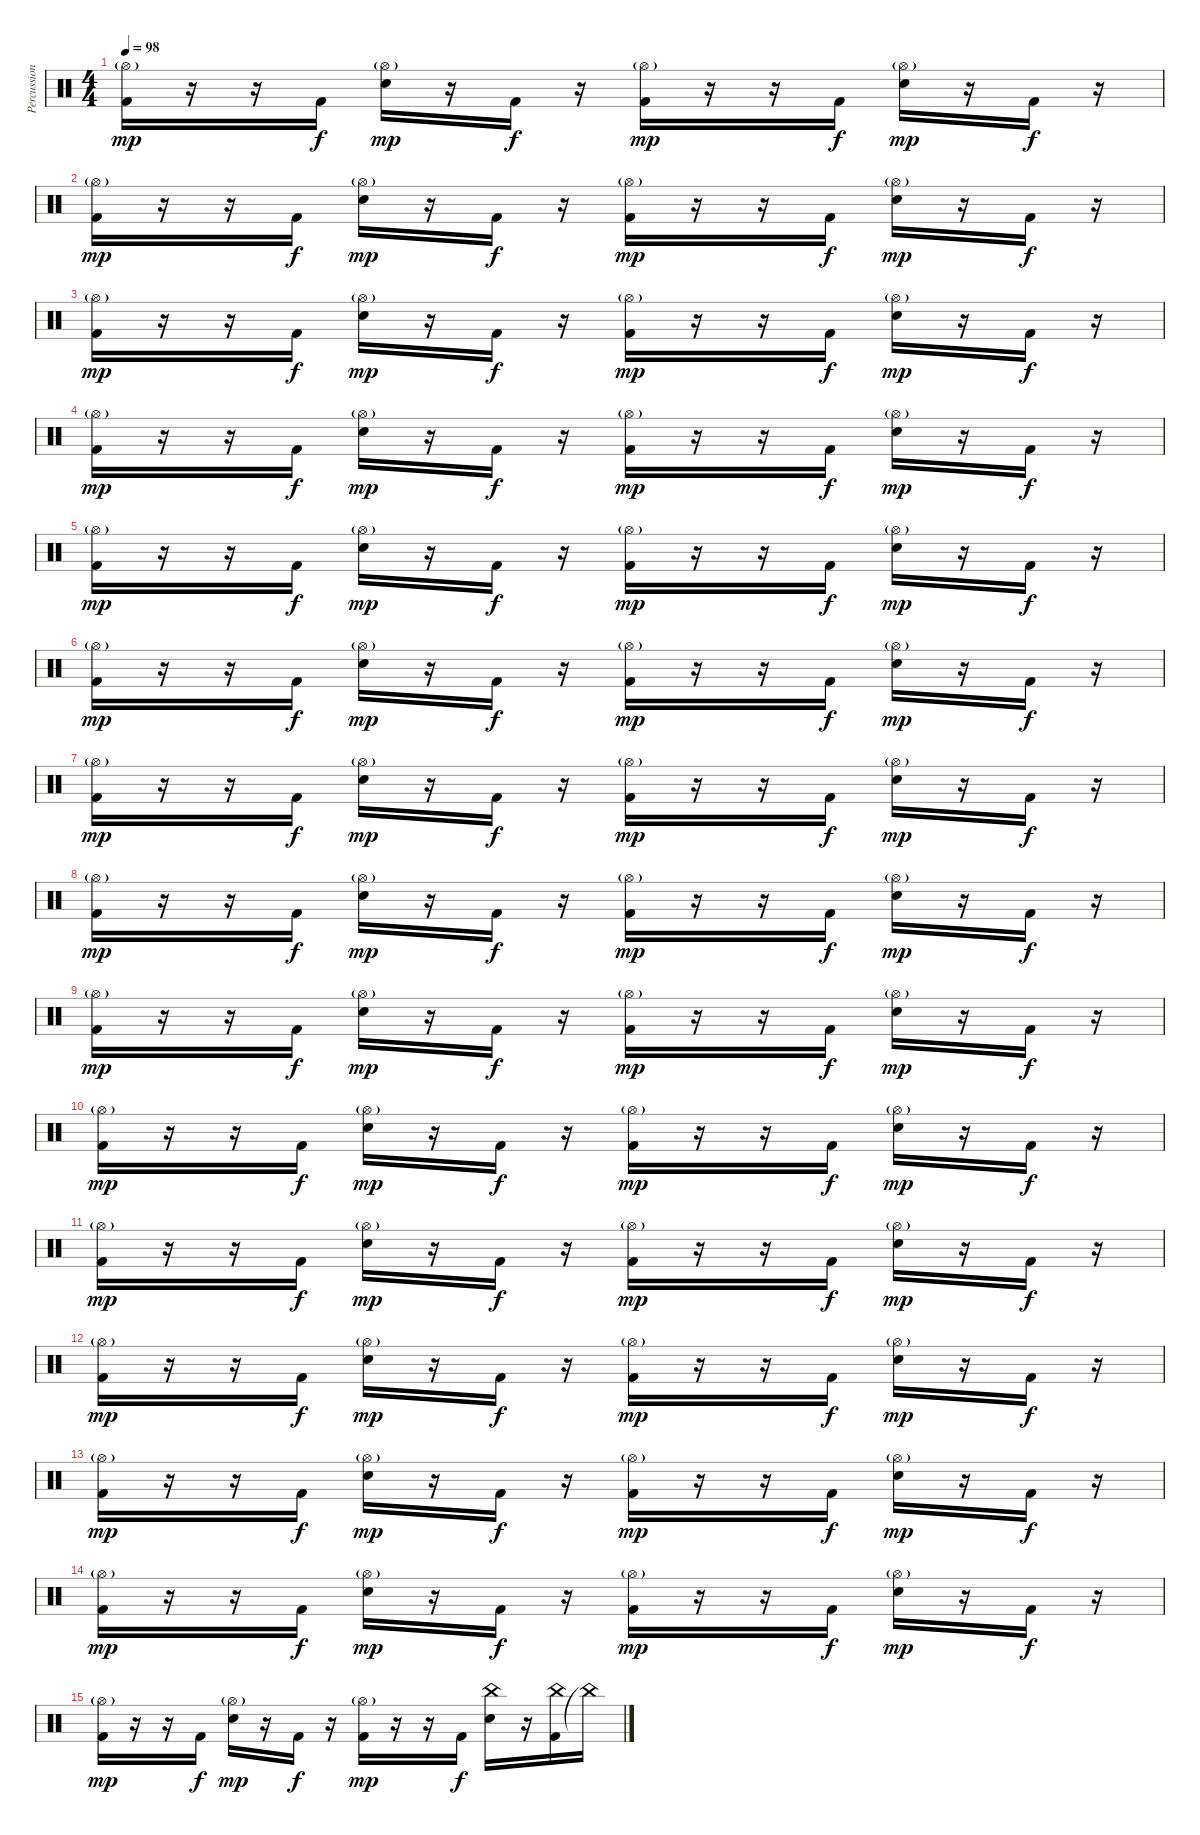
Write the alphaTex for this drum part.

\track ("Percussions" "Percussion") {instrument percussion}
\staff {score}
\articulation defaults
\ts (4 4)
\tempo 98
\clef neutral
\ks c
("Hi-Hat (open)"{g} "Kick (hit) 2").16{dy mp} r.16 r.16 "Kick (hit) 2".16{dy f} ("Hi-Hat (open)"{g} "Snare (hit) 2").16{dy mp} r.16 "Kick (hit) 2".16{dy f} r.16 ("Hi-Hat (open)"{g} "Kick (hit) 2").16{dy mp} r.16 r.16 "Kick (hit) 2".16{dy f} ("Hi-Hat (open)"{g} "Snare (hit) 2").16{dy mp} r.16 "Kick (hit) 2".16{dy f} r.16 |
("Hi-Hat (open)"{g} "Kick (hit) 2").16{dy mp} r.16 r.16 "Kick (hit) 2".16{dy f} ("Hi-Hat (open)"{g} "Snare (hit) 2").16{dy mp} r.16 "Kick (hit) 2".16{dy f} r.16 ("Hi-Hat (open)"{g} "Kick (hit) 2").16{dy mp} r.16 r.16 "Kick (hit) 2".16{dy f} ("Hi-Hat (open)"{g} "Snare (hit) 2").16{dy mp} r.16 "Kick (hit) 2".16{dy f} r.16 |
("Hi-Hat (open)"{g} "Kick (hit) 2").16{dy mp} r.16 r.16 "Kick (hit) 2".16{dy f} ("Hi-Hat (open)"{g} "Snare (hit) 2").16{dy mp} r.16 "Kick (hit) 2".16{dy f} r.16 ("Hi-Hat (open)"{g} "Kick (hit) 2").16{dy mp} r.16 r.16 "Kick (hit) 2".16{dy f} ("Hi-Hat (open)"{g} "Snare (hit) 2").16{dy mp} r.16 "Kick (hit) 2".16{dy f} r.16 |
("Hi-Hat (open)"{g} "Kick (hit) 2").16{dy mp} r.16 r.16 "Kick (hit) 2".16{dy f} ("Hi-Hat (open)"{g} "Snare (hit) 2").16{dy mp} r.16 "Kick (hit) 2".16{dy f} r.16 ("Hi-Hat (open)"{g} "Kick (hit) 2").16{dy mp} r.16 r.16 "Kick (hit) 2".16{dy f} ("Hi-Hat (open)"{g} "Snare (hit) 2").16{dy mp} r.16 "Kick (hit) 2".16{dy f} r.16 |
("Hi-Hat (open)"{g} "Kick (hit) 2").16{dy mp} r.16 r.16 "Kick (hit) 2".16{dy f} ("Hi-Hat (open)"{g} "Snare (hit) 2").16{dy mp} r.16 "Kick (hit) 2".16{dy f} r.16 ("Hi-Hat (open)"{g} "Kick (hit) 2").16{dy mp} r.16 r.16 "Kick (hit) 2".16{dy f} ("Hi-Hat (open)"{g} "Snare (hit) 2").16{dy mp} r.16 "Kick (hit) 2".16{dy f} r.16 |
("Hi-Hat (open)"{g} "Kick (hit) 2").16{dy mp} r.16 r.16 "Kick (hit) 2".16{dy f} ("Hi-Hat (open)"{g} "Snare (hit) 2").16{dy mp} r.16 "Kick (hit) 2".16{dy f} r.16 ("Hi-Hat (open)"{g} "Kick (hit) 2").16{dy mp} r.16 r.16 "Kick (hit) 2".16{dy f} ("Hi-Hat (open)"{g} "Snare (hit) 2").16{dy mp} r.16 "Kick (hit) 2".16{dy f} r.16 |
("Hi-Hat (open)"{g} "Kick (hit) 2").16{dy mp} r.16 r.16 "Kick (hit) 2".16{dy f} ("Hi-Hat (open)"{g} "Snare (hit) 2").16{dy mp} r.16 "Kick (hit) 2".16{dy f} r.16 ("Hi-Hat (open)"{g} "Kick (hit) 2").16{dy mp} r.16 r.16 "Kick (hit) 2".16{dy f} ("Hi-Hat (open)"{g} "Snare (hit) 2").16{dy mp} r.16 "Kick (hit) 2".16{dy f} r.16 |
("Hi-Hat (open)"{g} "Kick (hit) 2").16{dy mp} r.16 r.16 "Kick (hit) 2".16{dy f} ("Hi-Hat (open)"{g} "Snare (hit) 2").16{dy mp} r.16 "Kick (hit) 2".16{dy f} r.16 ("Hi-Hat (open)"{g} "Kick (hit) 2").16{dy mp} r.16 r.16 "Kick (hit) 2".16{dy f} ("Hi-Hat (open)"{g} "Snare (hit) 2").16{dy mp} r.16 "Kick (hit) 2".16{dy f} r.16 |
("Hi-Hat (open)"{g} "Kick (hit) 2").16{dy mp} r.16 r.16 "Kick (hit) 2".16{dy f} ("Hi-Hat (open)"{g} "Snare (hit) 2").16{dy mp} r.16 "Kick (hit) 2".16{dy f} r.16 ("Hi-Hat (open)"{g} "Kick (hit) 2").16{dy mp} r.16 r.16 "Kick (hit) 2".16{dy f} ("Hi-Hat (open)"{g} "Snare (hit) 2").16{dy mp} r.16 "Kick (hit) 2".16{dy f} r.16 |
("Hi-Hat (open)"{g} "Kick (hit) 2").16{dy mp} r.16 r.16 "Kick (hit) 2".16{dy f} ("Hi-Hat (open)"{g} "Snare (hit) 2").16{dy mp} r.16 "Kick (hit) 2".16{dy f} r.16 ("Hi-Hat (open)"{g} "Kick (hit) 2").16{dy mp} r.16 r.16 "Kick (hit) 2".16{dy f} ("Hi-Hat (open)"{g} "Snare (hit) 2").16{dy mp} r.16 "Kick (hit) 2".16{dy f} r.16 |
("Hi-Hat (open)"{g} "Kick (hit) 2").16{dy mp} r.16 r.16 "Kick (hit) 2".16{dy f} ("Hi-Hat (open)"{g} "Snare (hit) 2").16{dy mp} r.16 "Kick (hit) 2".16{dy f} r.16 ("Hi-Hat (open)"{g} "Kick (hit) 2").16{dy mp} r.16 r.16 "Kick (hit) 2".16{dy f} ("Hi-Hat (open)"{g} "Snare (hit) 2").16{dy mp} r.16 "Kick (hit) 2".16{dy f} r.16 |
("Hi-Hat (open)"{g} "Kick (hit) 2").16{dy mp} r.16 r.16 "Kick (hit) 2".16{dy f} ("Hi-Hat (open)"{g} "Snare (hit) 2").16{dy mp} r.16 "Kick (hit) 2".16{dy f} r.16 ("Hi-Hat (open)"{g} "Kick (hit) 2").16{dy mp} r.16 r.16 "Kick (hit) 2".16{dy f} ("Hi-Hat (open)"{g} "Snare (hit) 2").16{dy mp} r.16 "Kick (hit) 2".16{dy f} r.16 |
("Hi-Hat (open)"{g} "Kick (hit) 2").16{dy mp} r.16 r.16 "Kick (hit) 2".16{dy f} ("Hi-Hat (open)"{g} "Snare (hit) 2").16{dy mp} r.16 "Kick (hit) 2".16{dy f} r.16 ("Hi-Hat (open)"{g} "Kick (hit) 2").16{dy mp} r.16 r.16 "Kick (hit) 2".16{dy f} ("Hi-Hat (open)"{g} "Snare (hit) 2").16{dy mp} r.16 "Kick (hit) 2".16{dy f} r.16 |
("Hi-Hat (open)"{g} "Kick (hit) 2").16{dy mp} r.16 r.16 "Kick (hit) 2".16{dy f} ("Hi-Hat (open)"{g} "Snare (hit) 2").16{dy mp} r.16 "Kick (hit) 2".16{dy f} r.16 ("Hi-Hat (open)"{g} "Kick (hit) 2").16{dy mp} r.16 r.16 "Kick (hit) 2".16{dy f} ("Hi-Hat (open)"{g} "Snare (hit) 2").16{dy mp} r.16 "Kick (hit) 2".16{dy f} r.16 |
("Hi-Hat (open)"{g} "Kick (hit) 2").16{dy mp} r.16 r.16 "Kick (hit) 2".16{dy f} ("Hi-Hat (open)"{g} "Snare (hit) 2").16{dy mp} r.16 "Kick (hit) 2".16{dy f} r.16 ("Hi-Hat (open)"{g} "Kick (hit) 2").16{dy mp} r.16 r.16 "Kick (hit) 2".16{dy f} ("China (hit)" "Snare (hit) 2").16 r.16 ("Kick (hit) 2" "China (hit)").16 "China (hit)"{t}.16
